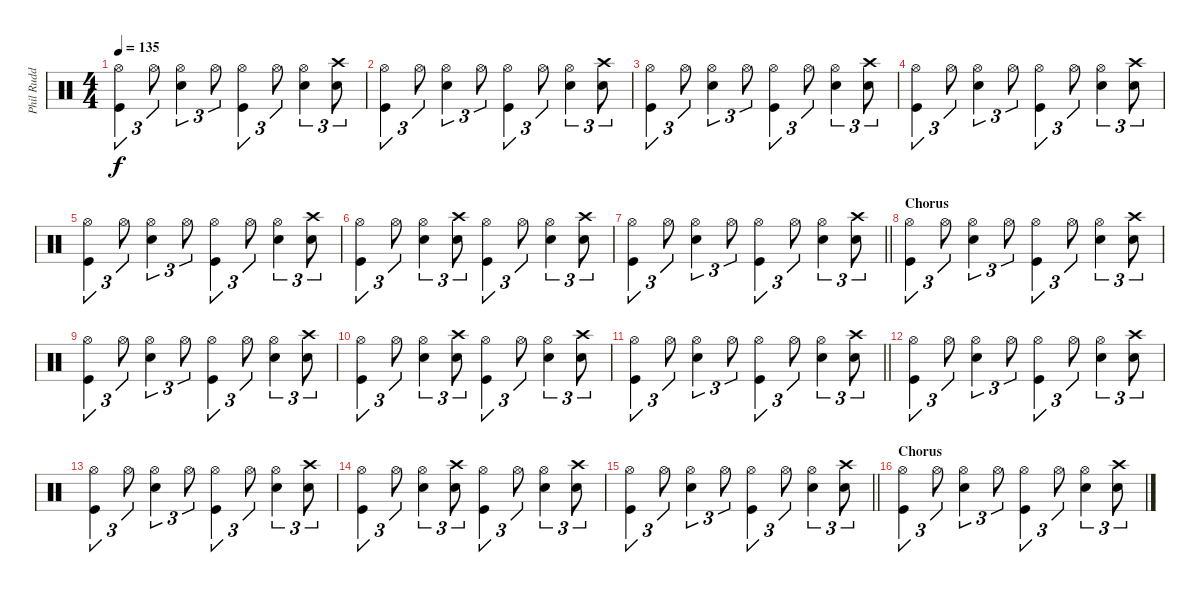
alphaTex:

\track ("Phil Rudd" "Phil Rudd") {instrument percussion}
\staff {score}
\articulation defaults
\ts (4 4)
\tempo 135
\clef neutral
\ks c
("Hi-Hat (open)" "Kick (hit)").4{tu (3 2) dy f} "Hi-Hat (open)".8{tu (3 2)} ("Hi-Hat (open)" "Snare (hit) 2").4{tu (3 2)} "Hi-Hat (open)".8{tu (3 2)} ("Hi-Hat (open)" "Kick (hit)").4{tu (3 2)} "Hi-Hat (open)".8{tu (3 2)} ("Hi-Hat (open)" "Snare (hit) 2").4{tu (3 2)} ("Crash high (hit)" "Snare (hit) 2").8{tu (3 2)} |
("Hi-Hat (open)" "Kick (hit)").4{tu (3 2)} "Hi-Hat (open)".8{tu (3 2)} ("Hi-Hat (open)" "Snare (hit) 2").4{tu (3 2)} "Hi-Hat (open)".8{tu (3 2)} ("Hi-Hat (open)" "Kick (hit)").4{tu (3 2)} "Hi-Hat (open)".8{tu (3 2)} ("Hi-Hat (open)" "Snare (hit) 2").4{tu (3 2)} ("Crash high (hit)" "Snare (hit) 2").8{tu (3 2)} |
("Hi-Hat (open)" "Kick (hit)").4{tu (3 2)} "Hi-Hat (open)".8{tu (3 2)} ("Hi-Hat (open)" "Snare (hit) 2").4{tu (3 2)} "Hi-Hat (open)".8{tu (3 2)} ("Hi-Hat (open)" "Kick (hit)").4{tu (3 2)} "Hi-Hat (open)".8{tu (3 2)} ("Hi-Hat (open)" "Snare (hit) 2").4{tu (3 2)} ("Crash high (hit)" "Snare (hit) 2").8{tu (3 2)} |
("Hi-Hat (open)" "Kick (hit)").4{tu (3 2)} "Hi-Hat (open)".8{tu (3 2)} ("Hi-Hat (open)" "Snare (hit) 2").4{tu (3 2)} "Hi-Hat (open)".8{tu (3 2)} ("Hi-Hat (open)" "Kick (hit)").4{tu (3 2)} "Hi-Hat (open)".8{tu (3 2)} ("Hi-Hat (open)" "Snare (hit) 2").4{tu (3 2)} ("Crash high (hit)" "Snare (hit) 2").8{tu (3 2)} |
("Hi-Hat (open)" "Kick (hit)").4{tu (3 2)} "Hi-Hat (open)".8{tu (3 2)} ("Hi-Hat (open)" "Snare (hit) 2").4{tu (3 2)} "Hi-Hat (open)".8{tu (3 2)} ("Hi-Hat (open)" "Kick (hit)").4{tu (3 2)} "Hi-Hat (open)".8{tu (3 2)} ("Hi-Hat (open)" "Snare (hit) 2").4{tu (3 2)} ("Crash high (hit)" "Snare (hit) 2").8{tu (3 2)} |
("Hi-Hat (open)" "Kick (hit)").4{tu (3 2)} "Hi-Hat (open)".8{tu (3 2)} ("Hi-Hat (open)" "Snare (hit) 2").4{tu (3 2)} ("Crash high (hit)" "Snare (hit) 2").8{tu (3 2)} ("Hi-Hat (open)" "Kick (hit)").4{tu (3 2)} "Hi-Hat (open)".8{tu (3 2)} ("Hi-Hat (open)" "Snare (hit) 2").4{tu (3 2)} ("Crash high (hit)" "Snare (hit) 2").8{tu (3 2)} |
\barLineRight lightlight
("Hi-Hat (open)" "Kick (hit)").4{tu (3 2)} "Hi-Hat (open)".8{tu (3 2)} ("Hi-Hat (open)" "Snare (hit) 2").4{tu (3 2)} "Hi-Hat (open)".8{tu (3 2)} ("Hi-Hat (open)" "Kick (hit)").4{tu (3 2)} "Hi-Hat (open)".8{tu (3 2)} ("Hi-Hat (open)" "Snare (hit) 2").4{tu (3 2)} ("Crash high (hit)" "Snare (hit) 2").8{tu (3 2)} |
\section ("" "Chorus")
("Hi-Hat (open)" "Kick (hit)").4{tu (3 2)} "Hi-Hat (open)".8{tu (3 2)} ("Hi-Hat (open)" "Snare (hit) 2").4{tu (3 2)} "Hi-Hat (open)".8{tu (3 2)} ("Hi-Hat (open)" "Kick (hit)").4{tu (3 2)} "Hi-Hat (open)".8{tu (3 2)} ("Hi-Hat (open)" "Snare (hit) 2").4{tu (3 2)} ("Crash high (hit)" "Snare (hit) 2").8{tu (3 2)} |
("Hi-Hat (open)" "Kick (hit)").4{tu (3 2)} "Hi-Hat (open)".8{tu (3 2)} ("Hi-Hat (open)" "Snare (hit) 2").4{tu (3 2)} "Hi-Hat (open)".8{tu (3 2)} ("Hi-Hat (open)" "Kick (hit)").4{tu (3 2)} "Hi-Hat (open)".8{tu (3 2)} ("Hi-Hat (open)" "Snare (hit) 2").4{tu (3 2)} ("Crash high (hit)" "Snare (hit) 2").8{tu (3 2)} |
("Hi-Hat (open)" "Kick (hit)").4{tu (3 2)} "Hi-Hat (open)".8{tu (3 2)} ("Hi-Hat (open)" "Snare (hit) 2").4{tu (3 2)} ("Crash high (hit)" "Snare (hit) 2").8{tu (3 2)} ("Hi-Hat (open)" "Kick (hit)").4{tu (3 2)} "Hi-Hat (open)".8{tu (3 2)} ("Hi-Hat (open)" "Snare (hit) 2").4{tu (3 2)} ("Crash high (hit)" "Snare (hit) 2").8{tu (3 2)} |
\barLineRight lightlight
("Hi-Hat (open)" "Kick (hit)").4{tu (3 2)} "Hi-Hat (open)".8{tu (3 2)} ("Hi-Hat (open)" "Snare (hit) 2").4{tu (3 2)} "Hi-Hat (open)".8{tu (3 2)} ("Hi-Hat (open)" "Kick (hit)").4{tu (3 2)} "Hi-Hat (open)".8{tu (3 2)} ("Hi-Hat (open)" "Snare (hit) 2").4{tu (3 2)} ("Crash high (hit)" "Snare (hit) 2").8{tu (3 2)} |
("Hi-Hat (open)" "Kick (hit)").4{tu (3 2)} "Hi-Hat (open)".8{tu (3 2)} ("Hi-Hat (open)" "Snare (hit) 2").4{tu (3 2)} "Hi-Hat (open)".8{tu (3 2)} ("Hi-Hat (open)" "Kick (hit)").4{tu (3 2)} "Hi-Hat (open)".8{tu (3 2)} ("Hi-Hat (open)" "Snare (hit) 2").4{tu (3 2)} ("Crash high (hit)" "Snare (hit) 2").8{tu (3 2)} |
("Hi-Hat (open)" "Kick (hit)").4{tu (3 2)} "Hi-Hat (open)".8{tu (3 2)} ("Hi-Hat (open)" "Snare (hit) 2").4{tu (3 2)} "Hi-Hat (open)".8{tu (3 2)} ("Hi-Hat (open)" "Kick (hit)").4{tu (3 2)} "Hi-Hat (open)".8{tu (3 2)} ("Hi-Hat (open)" "Snare (hit) 2").4{tu (3 2)} ("Crash high (hit)" "Snare (hit) 2").8{tu (3 2)} |
("Hi-Hat (open)" "Kick (hit)").4{tu (3 2)} "Hi-Hat (open)".8{tu (3 2)} ("Hi-Hat (open)" "Snare (hit) 2").4{tu (3 2)} ("Crash high (hit)" "Snare (hit) 2").8{tu (3 2)} ("Hi-Hat (open)" "Kick (hit)").4{tu (3 2)} "Hi-Hat (open)".8{tu (3 2)} ("Hi-Hat (open)" "Snare (hit) 2").4{tu (3 2)} ("Crash high (hit)" "Snare (hit) 2").8{tu (3 2)} |
\barLineRight lightlight
("Hi-Hat (open)" "Kick (hit)").4{tu (3 2)} "Hi-Hat (open)".8{tu (3 2)} ("Hi-Hat (open)" "Snare (hit) 2").4{tu (3 2)} "Hi-Hat (open)".8{tu (3 2)} ("Hi-Hat (open)" "Kick (hit)").4{tu (3 2)} "Hi-Hat (open)".8{tu (3 2)} ("Hi-Hat (open)" "Snare (hit) 2").4{tu (3 2)} ("Crash high (hit)" "Snare (hit) 2").8{tu (3 2)} |
\section ("" "Chorus")
("Hi-Hat (open)" "Kick (hit)").4{tu (3 2)} "Hi-Hat (open)".8{tu (3 2)} ("Hi-Hat (open)" "Snare (hit) 2").4{tu (3 2)} "Hi-Hat (open)".8{tu (3 2)} ("Hi-Hat (open)" "Kick (hit)").4{tu (3 2)} "Hi-Hat (open)".8{tu (3 2)} ("Hi-Hat (open)" "Snare (hit) 2").4{tu (3 2)} ("Crash high (hit)" "Snare (hit) 2").8{tu (3 2)}
